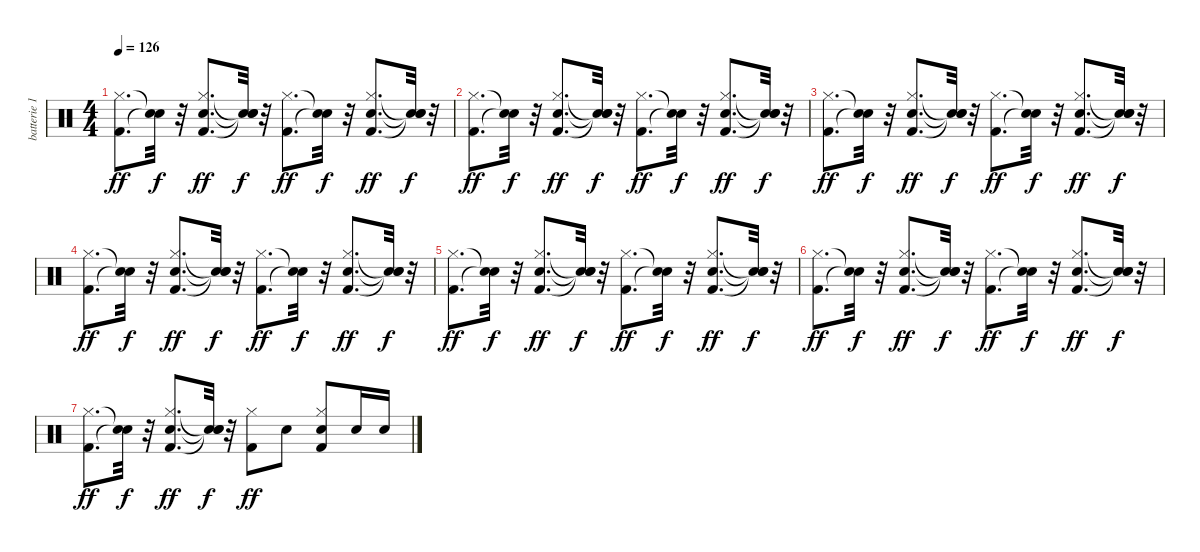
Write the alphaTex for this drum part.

\track ("batterie 1" "batterie 1") {instrument percussion}
\staff {score}
\articulation defaults
\ts (4 4)
\tempo 126
\clef neutral
\ks c
("Kick (hit) 2" "Hi-Hat (closed)").8{d dy ff} ("Snare (hit)"{t} "Snare (hit)"{t}).32{dy f} r.32 ("Kick (hit) 2" "Snare (hit) 2" "Hi-Hat (closed)").8{d dy ff} ("Snare (hit)"{t} "Snare (hit)"{t} "Snare (hit)"{t}).32{dy f} r.32 ("Kick (hit) 2" "Hi-Hat (closed)").8{d dy ff} ("Snare (hit)"{t} "Snare (hit)"{t}).32{dy f} r.32 ("Kick (hit) 2" "Snare (hit) 2" "Hi-Hat (closed)").8{d dy ff} ("Snare (hit)"{t} "Snare (hit)"{t} "Snare (hit)"{t}).32{dy f} r.32 |
("Kick (hit) 2" "Hi-Hat (closed)").8{d dy ff volume 16} ("Snare (hit)"{t} "Snare (hit)"{t}).32{dy f} r.32 ("Kick (hit) 2" "Snare (hit) 2" "Hi-Hat (closed)").8{d dy ff volume 15} ("Snare (hit)"{t} "Snare (hit)"{t} "Snare (hit)"{t}).32{dy f} r.32 ("Kick (hit) 2" "Hi-Hat (closed)").8{d dy ff volume 15} ("Snare (hit)"{t} "Snare (hit)"{t}).32{dy f} r.32 ("Kick (hit) 2" "Snare (hit) 2" "Hi-Hat (closed)").8{d dy ff volume 14} ("Snare (hit)"{t} "Snare (hit)"{t} "Snare (hit)"{t}).32{dy f} r.32 |
("Kick (hit) 2" "Hi-Hat (closed)").8{d dy ff volume 13} ("Snare (hit)"{t} "Snare (hit)"{t}).32{dy f} r.32 ("Kick (hit) 2" "Snare (hit) 2" "Hi-Hat (closed)").8{d dy ff volume 13} ("Snare (hit)"{t} "Snare (hit)"{t} "Snare (hit)"{t}).32{dy f} r.32 ("Kick (hit) 2" "Hi-Hat (closed)").8{d dy ff volume 12} ("Snare (hit)"{t} "Snare (hit)"{t}).32{dy f} r.32 ("Kick (hit) 2" "Snare (hit) 2" "Hi-Hat (closed)").8{d dy ff volume 11} ("Snare (hit)"{t} "Snare (hit)"{t} "Snare (hit)"{t}).32{dy f} r.32 |
("Kick (hit) 2" "Hi-Hat (closed)").8{d dy ff volume 11} ("Snare (hit)"{t} "Snare (hit)"{t}).32{dy f} r.32 ("Kick (hit) 2" "Snare (hit) 2" "Hi-Hat (closed)").8{d dy ff volume 10} ("Snare (hit)"{t} "Snare (hit)"{t} "Snare (hit)"{t}).32{dy f} r.32 ("Kick (hit) 2" "Hi-Hat (closed)").8{d dy ff volume 9} ("Snare (hit)"{t} "Snare (hit)"{t}).32{dy f} r.32 ("Kick (hit) 2" "Snare (hit) 2" "Hi-Hat (closed)").8{d dy ff volume 9} ("Snare (hit)"{t} "Snare (hit)"{t} "Snare (hit)"{t}).32{dy f} r.32 |
("Kick (hit) 2" "Hi-Hat (closed)").8{d dy ff volume 8} ("Snare (hit)"{t} "Snare (hit)"{t}).32{dy f} r.32 ("Kick (hit) 2" "Snare (hit) 2" "Hi-Hat (closed)").8{d dy ff volume 7} ("Snare (hit)"{t} "Snare (hit)"{t} "Snare (hit)"{t}).32{dy f} r.32 ("Kick (hit) 2" "Hi-Hat (closed)").8{d dy ff volume 7} ("Snare (hit)"{t} "Snare (hit)"{t}).32{dy f} r.32 ("Kick (hit) 2" "Snare (hit) 2" "Hi-Hat (closed)").8{d dy ff volume 6} ("Snare (hit)"{t} "Snare (hit)"{t} "Snare (hit)"{t}).32{dy f} r.32 |
("Kick (hit) 2" "Hi-Hat (closed)").8{d dy ff volume 5} ("Snare (hit)"{t} "Snare (hit)"{t}).32{dy f} r.32 ("Kick (hit) 2" "Snare (hit) 2" "Hi-Hat (closed)").8{d dy ff volume 5} ("Snare (hit)"{t} "Snare (hit)"{t} "Snare (hit)"{t}).32{dy f} r.32 ("Kick (hit) 2" "Hi-Hat (closed)").8{d dy ff volume 4} ("Snare (hit)"{t} "Snare (hit)"{t}).32{dy f} r.32 ("Kick (hit) 2" "Snare (hit) 2" "Hi-Hat (closed)").8{d dy ff volume 3} ("Snare (hit)"{t} "Snare (hit)"{t} "Snare (hit)"{t}).32{dy f} r.32 |
("Kick (hit) 2" "Hi-Hat (closed)").8{d dy ff volume 3} ("Snare (hit)"{t} "Snare (hit)"{t}).32{dy f} r.32 ("Kick (hit) 2" "Snare (hit) 2" "Hi-Hat (closed)").8{d dy ff volume 2} ("Snare (hit)"{t} "Snare (hit)"{t} "Snare (hit)"{t}).32{dy f} r.32 ("Kick (hit) 2" "Hi-Hat (closed)").8{dy ff volume 1} "Snare (hit) 2".8{volume 1} ("Kick (hit) 2" "Snare (hit) 2" "Hi-Hat (closed)").8{volume 1} "Snare (hit) 2".16{volume 0} "Snare (hit) 2".16{volume 0}
